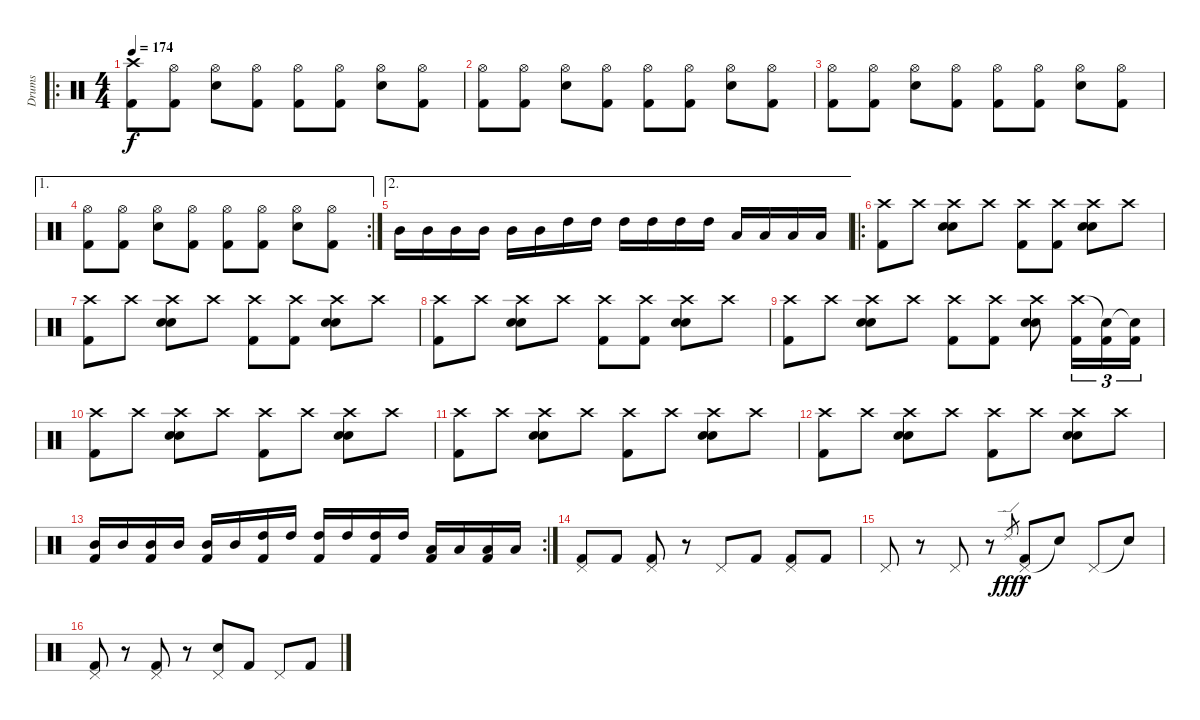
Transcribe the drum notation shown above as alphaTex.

\track ("Drums" "Drums") {instrument percussion}
\staff {score}
\articulation defaults
\ro
\ts (4 4)
\tempo 174
\clef neutral
\ks c
("Crash high (hit)" "Kick (hit) 2").8{dy f} ("Hi-Hat (open)" "Kick (hit) 2").8 ("Hi-Hat (open)" "Electric Snare (hit)").8 ("Hi-Hat (open)" "Kick (hit) 2").8 ("Hi-Hat (open)" "Kick (hit) 2").8 ("Hi-Hat (open)" "Kick (hit) 2").8 ("Hi-Hat (open)" "Electric Snare (hit)").8 ("Hi-Hat (open)" "Kick (hit) 2").8 |
("Hi-Hat (open)" "Kick (hit) 2").8 ("Hi-Hat (open)" "Kick (hit) 2").8 ("Hi-Hat (open)" "Electric Snare (hit)").8 ("Hi-Hat (open)" "Kick (hit) 2").8 ("Hi-Hat (open)" "Kick (hit) 2").8 ("Hi-Hat (open)" "Kick (hit) 2").8 ("Hi-Hat (open)" "Electric Snare (hit)").8 ("Hi-Hat (open)" "Kick (hit) 2").8 |
("Hi-Hat (open)" "Kick (hit) 2").8 ("Hi-Hat (open)" "Kick (hit) 2").8 ("Hi-Hat (open)" "Electric Snare (hit)").8 ("Hi-Hat (open)" "Kick (hit) 2").8 ("Hi-Hat (open)" "Kick (hit) 2").8 ("Hi-Hat (open)" "Kick (hit) 2").8 ("Hi-Hat (open)" "Electric Snare (hit)").8 ("Hi-Hat (open)" "Kick (hit) 2").8 |
\ae 1
\rc 2
("Hi-Hat (open)" "Kick (hit) 2").8 ("Hi-Hat (open)" "Kick (hit) 2").8 ("Hi-Hat (open)" "Electric Snare (hit)").8 ("Hi-Hat (open)" "Kick (hit) 2").8 ("Hi-Hat (open)" "Kick (hit) 2").8 ("Hi-Hat (open)" "Kick (hit) 2").8 ("Hi-Hat (open)" "Electric Snare (hit)").8 ("Hi-Hat (open)" "Kick (hit) 2").8 |
\ae 2 "Mid Tom (hit)".16 "Mid Tom (hit)".16 "Mid Tom (hit)".16 "Mid Tom (hit)".16 "Mid Tom (hit)".16 "Mid Tom (hit)".16 "High Tom (hit)".16 "High Tom (hit)".16 "High Tom (hit)".16 "High Tom (hit)".16 "High Tom (hit)".16 "High Tom (hit)".16 "Low Tom (hit)".16 "Low Tom (hit)".16 "Low Tom (hit)".16 "Low Tom (hit)".16
|
\ro
("Crash high (hit)" "Kick (hit) 2").8 "Crash high (hit)".8 ("Crash high (hit)" "Electric Snare (hit)" "Electric Snare (hit)").8 "Crash high (hit)".8 ("Crash high (hit)" "Kick (hit) 2").8 ("Crash high (hit)" "Kick (hit) 2").8 ("Crash high (hit)" "Electric Snare (hit)" "Electric Snare (hit)").8 "Crash high (hit)".8 |
("Crash high (hit)" "Kick (hit) 2").8 "Crash high (hit)".8 ("Crash high (hit)" "Electric Snare (hit)" "Electric Snare (hit)").8 "Crash high (hit)".8 ("Crash high (hit)" "Kick (hit) 2").8 ("Crash high (hit)" "Kick (hit) 2").8 ("Crash high (hit)" "Electric Snare (hit)" "Electric Snare (hit)").8 "Crash high (hit)".8 |
("Crash high (hit)" "Kick (hit) 2").8 "Crash high (hit)".8 ("Crash high (hit)" "Electric Snare (hit)" "Electric Snare (hit)").8 "Crash high (hit)".8 ("Crash high (hit)" "Kick (hit) 2").8 ("Crash high (hit)" "Kick (hit) 2").8 ("Crash high (hit)" "Electric Snare (hit)" "Electric Snare (hit)").8 "Crash high (hit)".8 |
("Crash high (hit)" "Kick (hit) 2").8 "Crash high (hit)".8 ("Crash high (hit)" "Electric Snare (hit)" "Electric Snare (hit)").8 "Crash high (hit)".8 ("Crash high (hit)" "Kick (hit) 2").8 ("Crash high (hit)" "Kick (hit) 2").8 ("Crash high (hit)" "Electric Snare (hit)" "Electric Snare (hit)").8 ("Crash high (hit)" "Kick (hit) 2").16{tu (3 2)} ("Snare (hit)"{t} "Kick (hit) 2").16{tu (3 2)} ("Snare (hit)"{t} "Kick (hit) 2").16{tu (3 2)} |
("Crash high (hit)" "Kick (hit) 2").8 "Crash high (hit)".8 ("Crash high (hit)" "Electric Snare (hit)" "Electric Snare (hit)").8 "Crash high (hit)".8 ("Crash high (hit)" "Kick (hit) 2").8 "Crash high (hit)".8 ("Crash high (hit)" "Electric Snare (hit)" "Electric Snare (hit)").8 "Crash high (hit)".8 |
("Crash high (hit)" "Kick (hit) 2").8 "Crash high (hit)".8 ("Crash high (hit)" "Electric Snare (hit)" "Electric Snare (hit)").8 "Crash high (hit)".8 ("Crash high (hit)" "Kick (hit) 2").8 "Crash high (hit)".8 ("Crash high (hit)" "Electric Snare (hit)" "Electric Snare (hit)").8 "Crash high (hit)".8 |
("Crash high (hit)" "Kick (hit) 2").8 "Crash high (hit)".8 ("Crash high (hit)" "Electric Snare (hit)" "Electric Snare (hit)").8 "Crash high (hit)".8 ("Crash high (hit)" "Kick (hit) 2").8 "Crash high (hit)".8 ("Crash high (hit)" "Electric Snare (hit)" "Electric Snare (hit)").8 "Crash high (hit)".8 |
\rc 2
("Mid Tom (hit)" "Kick (hit) 2").16 "Mid Tom (hit)".16 ("Mid Tom (hit)" "Kick (hit) 2").16 "Mid Tom (hit)".16 ("Mid Tom (hit)" "Kick (hit) 2").16 "Mid Tom (hit)".16 ("High Tom (hit)" "Kick (hit) 2").16 "High Tom (hit)".16 ("High Tom (hit)" "Kick (hit) 2").16 "High Tom (hit)".16 ("High Tom (hit)" "Kick (hit) 2").16 "High Tom (hit)".16 ("Low Tom (hit)" "Kick (hit) 2").16 "Low Tom (hit)".16 ("Low Tom (hit)" "Kick (hit) 2").16 "Low Tom (hit)".16 |
("Pedal Hi-Hat (hit)" "Kick (hit) 2").8 "Kick (hit) 2".8 ("Pedal Hi-Hat (hit)" "Kick (hit) 2").8 r.8 "Pedal Hi-Hat (hit)".8 "Kick (hit) 2".8 ("Pedal Hi-Hat (hit)" "Kick (hit) 2").8 "Kick (hit) 2".8 |
"Pedal Hi-Hat (hit)".8 r.8 "Pedal Hi-Hat (hit)".8 r.8 "Ride (edge) 2".8{gr dy fff} ("Pedal Hi-Hat (hit)" "Kick (hit) 2").8{dy f} "Snare (hit)"{t}.8 "Pedal Hi-Hat (hit)".8 "Snare (hit)"{t}.8 |
("Pedal Hi-Hat (hit)" "Kick (hit) 2").8 r.8 ("Pedal Hi-Hat (hit)" "Kick (hit) 2").8 r.8 ("Pedal Hi-Hat (hit)" "Electric Snare (hit)").8 "Kick (hit) 2".8 "Pedal Hi-Hat (hit)".8 "Kick (hit) 2".8
